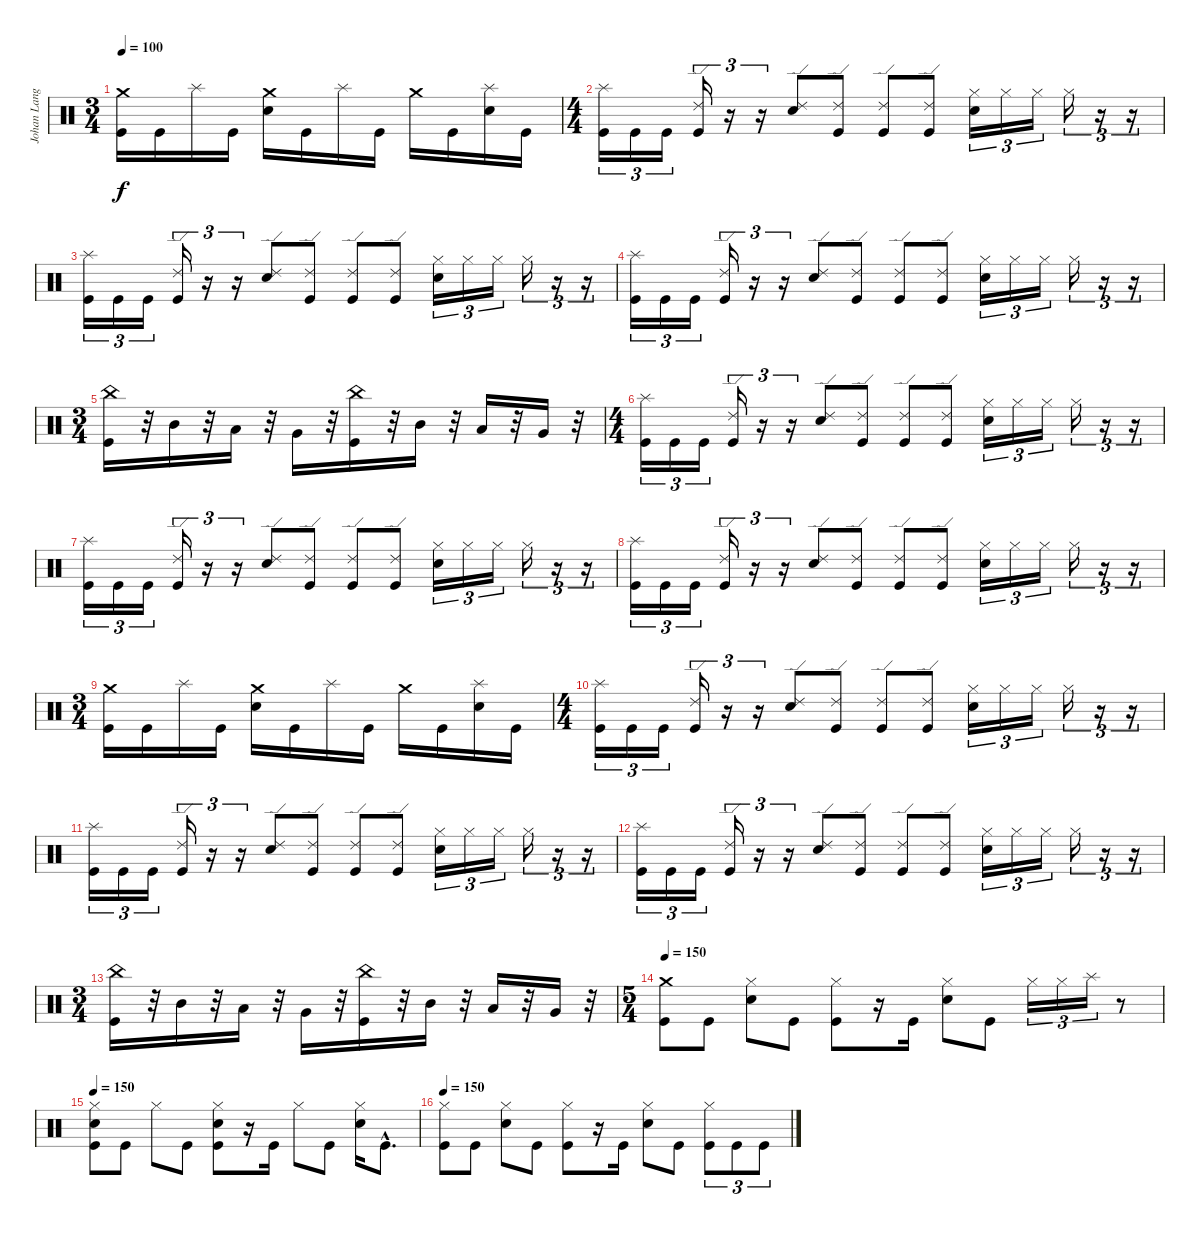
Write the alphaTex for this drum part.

\track ("Johan Langell" "Johan Lang") {instrument percussion}
\staff {score}
\articulation defaults
\ts (3 4)
\tempo 100
\clef neutral
\ks c
("Crash medium (hit)" "Kick (hit)").16{dy f} "Kick (hit)".16 "Splash (hit)".16 "Kick (hit)".16 ("Crash medium (hit)" "Electric Snare (hit)").16 "Kick (hit)".16 "Splash (hit)".16 "Kick (hit)".16 "Crash medium (hit)".16 "Kick (hit)".16 ("Splash (hit)" "Electric Snare (hit)").16 "Kick (hit)".16 |
\ts (4 4)
("Splash (hit)" "Kick (hit)").16{tu (3 2)} "Kick (hit)".16{tu (3 2)} "Kick (hit)".16{tu (3 2)} ("Ride (edge) 2" "Kick (hit)").16{tu (3 2)} r.16{tu (3 2)} r.16{tu (3 2)} ("Ride (edge) 2" "Electric Snare (hit)").8 ("Ride (edge) 2" "Kick (hit)").8 ("Ride (edge) 2" "Kick (hit)").8 ("Ride (edge) 2" "Kick (hit)").8 ("Hi-Hat (closed)" "Electric Snare (hit)").16{tu (3 2)} "Hi-Hat (closed)".16{tu (3 2)} "Hi-Hat (closed)".16{tu (3 2)} "Hi-Hat (closed)".16{tu (3 2)} r.16{tu (3 2)} r.16{tu (3 2)} |
("Splash (hit)" "Kick (hit)").16{tu (3 2)} "Kick (hit)".16{tu (3 2)} "Kick (hit)".16{tu (3 2)} ("Ride (edge) 2" "Kick (hit)").16{tu (3 2)} r.16{tu (3 2)} r.16{tu (3 2)} ("Ride (edge) 2" "Electric Snare (hit)").8 ("Ride (edge) 2" "Kick (hit)").8 ("Ride (edge) 2" "Kick (hit)").8 ("Ride (edge) 2" "Kick (hit)").8 ("Hi-Hat (closed)" "Electric Snare (hit)").16{tu (3 2)} "Hi-Hat (closed)".16{tu (3 2)} "Hi-Hat (closed)".16{tu (3 2)} "Hi-Hat (closed)".16{tu (3 2)} r.16{tu (3 2)} r.16{tu (3 2)} |
("Splash (hit)" "Kick (hit)").16{tu (3 2)} "Kick (hit)".16{tu (3 2)} "Kick (hit)".16{tu (3 2)} ("Ride (edge) 2" "Kick (hit)").16{tu (3 2)} r.16{tu (3 2)} r.16{tu (3 2)} ("Ride (edge) 2" "Electric Snare (hit)").8 ("Ride (edge) 2" "Kick (hit)").8 ("Ride (edge) 2" "Kick (hit)").8 ("Ride (edge) 2" "Kick (hit)").8 ("Hi-Hat (closed)" "Electric Snare (hit)").16{tu (3 2)} "Hi-Hat (closed)".16{tu (3 2)} "Hi-Hat (closed)".16{tu (3 2)} "Hi-Hat (closed)".16{tu (3 2)} r.16{tu (3 2)} r.16{tu (3 2)} |
\ts (3 4)
("China (hit)" "Kick (hit)").16 r.32 "Mid Tom (hit)".16 r.32 "Low Tom (hit)".16 r.32 "Very Low Tom (hit)".16 r.32 ("China (hit)" "Kick (hit)").16 r.32 "Mid Tom (hit)".16 r.32 "Low Tom (hit)".16 r.32 "Very Low Tom (hit)".16 r.32 |
\ts (4 4)
("Splash (hit)" "Kick (hit)").16{tu (3 2)} "Kick (hit)".16{tu (3 2)} "Kick (hit)".16{tu (3 2)} ("Ride (edge) 2" "Kick (hit)").16{tu (3 2)} r.16{tu (3 2)} r.16{tu (3 2)} ("Ride (edge) 2" "Electric Snare (hit)").8 ("Ride (edge) 2" "Kick (hit)").8 ("Ride (edge) 2" "Kick (hit)").8 ("Ride (edge) 2" "Kick (hit)").8 ("Hi-Hat (closed)" "Electric Snare (hit)").16{tu (3 2)} "Hi-Hat (closed)".16{tu (3 2)} "Hi-Hat (closed)".16{tu (3 2)} "Hi-Hat (closed)".16{tu (3 2)} r.16{tu (3 2)} r.16{tu (3 2)} |
("Splash (hit)" "Kick (hit)").16{tu (3 2)} "Kick (hit)".16{tu (3 2)} "Kick (hit)".16{tu (3 2)} ("Ride (edge) 2" "Kick (hit)").16{tu (3 2)} r.16{tu (3 2)} r.16{tu (3 2)} ("Ride (edge) 2" "Electric Snare (hit)").8 ("Ride (edge) 2" "Kick (hit)").8 ("Ride (edge) 2" "Kick (hit)").8 ("Ride (edge) 2" "Kick (hit)").8 ("Hi-Hat (closed)" "Electric Snare (hit)").16{tu (3 2)} "Hi-Hat (closed)".16{tu (3 2)} "Hi-Hat (closed)".16{tu (3 2)} "Hi-Hat (closed)".16{tu (3 2)} r.16{tu (3 2)} r.16{tu (3 2)} |
("Splash (hit)" "Kick (hit)").16{tu (3 2)} "Kick (hit)".16{tu (3 2)} "Kick (hit)".16{tu (3 2)} ("Ride (edge) 2" "Kick (hit)").16{tu (3 2)} r.16{tu (3 2)} r.16{tu (3 2)} ("Ride (edge) 2" "Electric Snare (hit)").8 ("Ride (edge) 2" "Kick (hit)").8 ("Ride (edge) 2" "Kick (hit)").8 ("Ride (edge) 2" "Kick (hit)").8 ("Hi-Hat (closed)" "Electric Snare (hit)").16{tu (3 2)} "Hi-Hat (closed)".16{tu (3 2)} "Hi-Hat (closed)".16{tu (3 2)} "Hi-Hat (closed)".16{tu (3 2)} r.16{tu (3 2)} r.16{tu (3 2)} |
\ts (3 4)
("Crash medium (hit)" "Kick (hit)").16 "Kick (hit)".16 "Splash (hit)".16 "Kick (hit)".16 ("Crash medium (hit)" "Electric Snare (hit)").16 "Kick (hit)".16 "Splash (hit)".16 "Kick (hit)".16 "Crash medium (hit)".16 "Kick (hit)".16 ("Splash (hit)" "Electric Snare (hit)").16 "Kick (hit)".16 |
\ts (4 4)
("Splash (hit)" "Kick (hit)").16{tu (3 2)} "Kick (hit)".16{tu (3 2)} "Kick (hit)".16{tu (3 2)} ("Ride (edge) 2" "Kick (hit)").16{tu (3 2)} r.16{tu (3 2)} r.16{tu (3 2)} ("Ride (edge) 2" "Electric Snare (hit)").8 ("Ride (edge) 2" "Kick (hit)").8 ("Ride (edge) 2" "Kick (hit)").8 ("Ride (edge) 2" "Kick (hit)").8 ("Hi-Hat (closed)" "Electric Snare (hit)").16{tu (3 2)} "Hi-Hat (closed)".16{tu (3 2)} "Hi-Hat (closed)".16{tu (3 2)} "Hi-Hat (closed)".16{tu (3 2)} r.16{tu (3 2)} r.16{tu (3 2)} |
("Splash (hit)" "Kick (hit)").16{tu (3 2)} "Kick (hit)".16{tu (3 2)} "Kick (hit)".16{tu (3 2)} ("Ride (edge) 2" "Kick (hit)").16{tu (3 2)} r.16{tu (3 2)} r.16{tu (3 2)} ("Ride (edge) 2" "Electric Snare (hit)").8 ("Ride (edge) 2" "Kick (hit)").8 ("Ride (edge) 2" "Kick (hit)").8 ("Ride (edge) 2" "Kick (hit)").8 ("Hi-Hat (closed)" "Electric Snare (hit)").16{tu (3 2)} "Hi-Hat (closed)".16{tu (3 2)} "Hi-Hat (closed)".16{tu (3 2)} "Hi-Hat (closed)".16{tu (3 2)} r.16{tu (3 2)} r.16{tu (3 2)} |
("Splash (hit)" "Kick (hit)").16{tu (3 2)} "Kick (hit)".16{tu (3 2)} "Kick (hit)".16{tu (3 2)} ("Ride (edge) 2" "Kick (hit)").16{tu (3 2)} r.16{tu (3 2)} r.16{tu (3 2)} ("Ride (edge) 2" "Electric Snare (hit)").8 ("Ride (edge) 2" "Kick (hit)").8 ("Ride (edge) 2" "Kick (hit)").8 ("Ride (edge) 2" "Kick (hit)").8 ("Hi-Hat (closed)" "Electric Snare (hit)").16{tu (3 2)} "Hi-Hat (closed)".16{tu (3 2)} "Hi-Hat (closed)".16{tu (3 2)} "Hi-Hat (closed)".16{tu (3 2)} r.16{tu (3 2)} r.16{tu (3 2)} |
\ts (3 4)
("China (hit)" "Kick (hit)").16 r.32 "Mid Tom (hit)".16 r.32 "Low Tom (hit)".16 r.32 "Very Low Tom (hit)".16 r.32 ("China (hit)" "Kick (hit)").16 r.32 "Mid Tom (hit)".16 r.32 "Low Tom (hit)".16 r.32 "Very Low Tom (hit)".16 r.32 |
\ts (5 4)
\tempo 150
("Crash medium (hit)" "Kick (hit)").8 "Kick (hit)".8 ("Hi-Hat (closed)" "Electric Snare (hit)").8 "Kick (hit)".8 ("Hi-Hat (closed)" "Kick (hit)").8 r.16 "Kick (hit)".16 ("Hi-Hat (closed)" "Electric Snare (hit)").8 "Kick (hit)".8 "Hi-Hat (closed)".16{tu (3 2)} "Hi-Hat (closed)".16{tu (3 2)} "Splash (hit)".16{tu (3 2)} r.8 |
\tempo 150
("Hi-Hat (closed)" "Electric Snare (hit)" "Kick (hit)").8 "Kick (hit)".8 "Hi-Hat (closed)".8 "Kick (hit)".8 ("Hi-Hat (closed)" "Electric Snare (hit)" "Kick (hit)").8 r.16 "Kick (hit)".16 "Hi-Hat (closed)".8 "Kick (hit)".8 ("Hi-Hat (closed)" "Electric Snare (hit)").16 "Kick (hit)"{hac}.8{d} |
\tempo 150
("Hi-Hat (closed)" "Kick (hit)").8 "Kick (hit)".8 ("Hi-Hat (closed)" "Electric Snare (hit)").8 "Kick (hit)".8 ("Hi-Hat (closed)" "Kick (hit)").8 r.16 "Kick (hit)".16 ("Hi-Hat (closed)" "Electric Snare (hit)").8 "Kick (hit)".8 ("Hi-Hat (closed)" "Kick (hit)").8{tu (3 2)} "Kick (hit)".8{tu (3 2)} "Kick (hit)".8{tu (3 2)}
